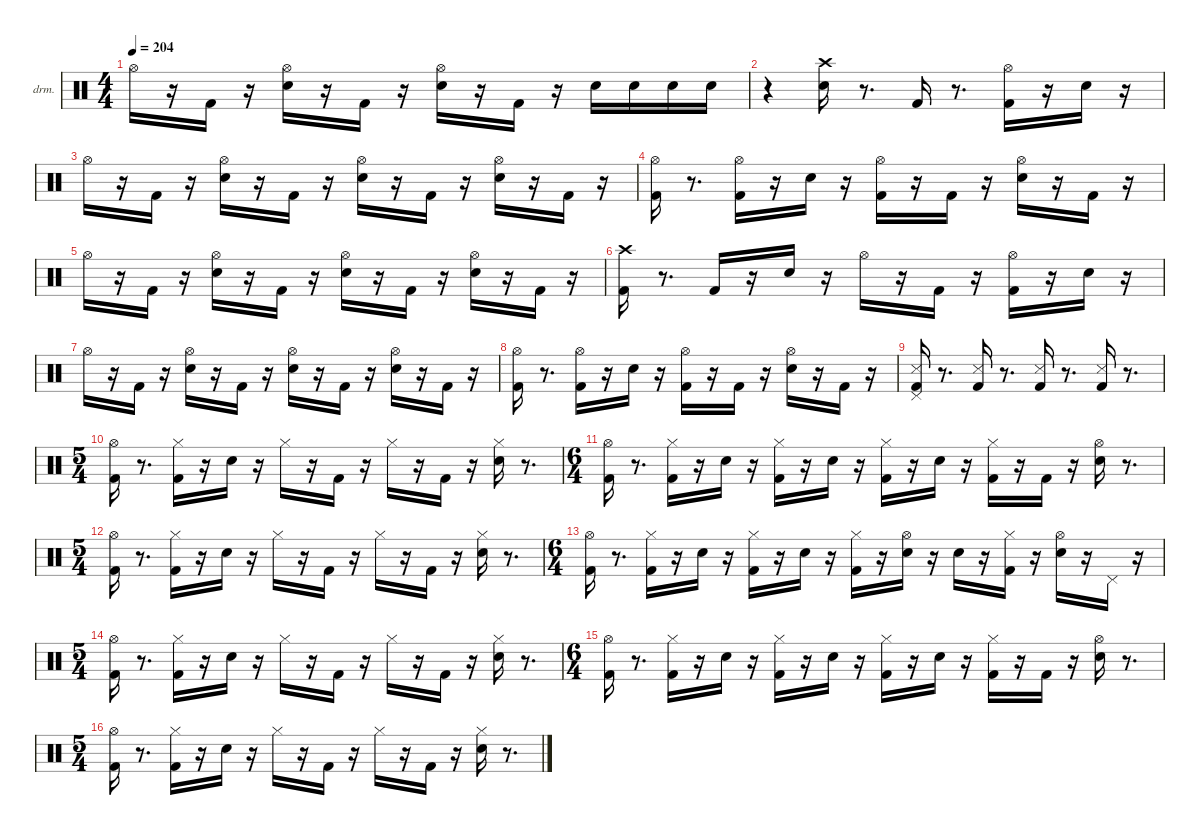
\hideDynamics
\bracketExtendMode nobrackets
\firstSystemTrackNameOrientation horizontal
\otherSystemsTrackNameOrientation horizontal
\track ("drums" "drm.") {instrument percussion}
\staff {score}
\articulation defaults
\ts (4 4)
\tempo 204
\clef neutral
\ks aminor "Hi-Hat (open)"{acc #}.16{dy fff beam Down}
r.16{beam Down} "Kick (hit) 2".16{dy ff beam Up} r.16{beam Up} ("Snare (hit) 2" "Hi-Hat (open)"{acc #}).16{beam Down} r.16{beam Down} "Kick (hit) 2".16{beam Up} r.16{beam Up} ("Snare (hit) 2" "Hi-Hat (open)"{acc #}).16{beam Down} r.16{beam Down} "Kick (hit) 2".16{beam Up} r.16{beam Up} "Snare (hit) 2".16{beam Down} "Snare (hit) 2".16{dy mf beam Down} "Snare (hit) 2".16{dy f beam Down} "Snare (hit) 2".16{dy ff beam Down} |
r.4{beam Down} ("Snare (hit) 2" "Crash high (hit)"{acc #}).16{beam Down} r.8{d beam Down} "Kick (hit) 2".16{beam Up} r.8{d beam Up} ("Kick (hit) 2" "Hi-Hat (open)"{acc #}).16{dy fff beam Down} r.16{beam Down} "Snare (hit) 2".16{dy ff beam Down} r.16{beam Down} |
"Hi-Hat (open)"{acc #}.16{dy fff beam Down} r.16{beam Down} "Kick (hit) 2".16{dy ff beam Up} r.16{beam Up} ("Snare (hit) 2" "Hi-Hat (open)"{acc #}).16{beam Down} r.16{beam Down} "Kick (hit) 2".16{beam Up} r.16{beam Up} ("Snare (hit) 2" "Hi-Hat (open)"{acc #}).16{beam Down} r.16{beam Down} "Kick (hit) 2".16{beam Up} r.16{beam Up} ("Snare (hit) 2" "Hi-Hat (open)"{acc #}).16{beam Down} r.16{beam Down} "Kick (hit) 2".16{dy mf beam Up} r.16{beam Up} |
("Kick (hit) 2" "Hi-Hat (open)"{acc #}).16{dy fff beam Down} r.8{d beam Down} ("Kick (hit) 2" "Hi-Hat (open)"{acc #}).16{dy ff beam Down} r.16{beam Down} "Snare (hit) 2".16{beam Down} r.16{beam Down} ("Kick (hit) 2" "Hi-Hat (open)"{acc #}).16{dy mf beam Down} r.16{beam Down} "Kick (hit) 2".16{dy ff beam Up} r.16{beam Up} ("Snare (hit) 2" "Hi-Hat (open)"{acc #}).16{dy mf beam Down} r.16{beam Down} "Kick (hit) 2".16{dy ff beam Up} r.16{beam Up} |
"Hi-Hat (open)"{acc #}.16{dy fff beam Down} r.16{beam Down} "Kick (hit) 2".16{dy ff beam Up} r.16{beam Up} ("Snare (hit) 2" "Hi-Hat (open)"{acc #}).16{beam Down} r.16{beam Down} "Kick (hit) 2".16{beam Up} r.16{beam Up} ("Snare (hit) 2" "Hi-Hat (open)"{acc #}).16{beam Down} r.16{beam Down} "Kick (hit) 2".16{beam Up} r.16{beam Up} ("Snare (hit) 2" "Hi-Hat (open)"{acc #}).16{beam Down} r.16{beam Down} "Kick (hit) 2".16{dy mf beam Up} r.16{beam Up} |
("Kick (hit) 2" "Crash high (hit)"{acc #}).16{dy fff beam Down} r.8{d beam Down} "Kick (hit) 2".16{dy ff beam Up} r.16{beam Up} "Snare (hit) 2".16{beam Down} r.16{beam Down} "Hi-Hat (open)"{acc #}.16{dy f beam Down} r.16{beam Down} "Kick (hit) 2".16{beam Up} r.16{beam Up} ("Kick (hit) 2" "Hi-Hat (open)"{acc #}).16{dy ff beam Down} r.16{beam Down} "Snare (hit) 2".16{beam Down} r.16{beam Down} |
"Hi-Hat (open)"{acc #}.16{dy fff beam Down} r.16{beam Down} "Kick (hit) 2".16{dy ff beam Up} r.16{beam Up} ("Snare (hit) 2" "Hi-Hat (open)"{acc #}).16{beam Down} r.16{beam Down} "Kick (hit) 2".16{beam Up} r.16{beam Up} ("Snare (hit) 2" "Hi-Hat (open)"{acc #}).16{beam Down} r.16{beam Down} "Kick (hit) 2".16{beam Up} r.16{beam Up} ("Snare (hit) 2" "Hi-Hat (open)"{acc #}).16{beam Down} r.16{beam Down} "Kick (hit) 2".16{dy mf beam Up} r.16{beam Up} |
("Kick (hit) 2" "Hi-Hat (open)"{acc #}).16{dy fff beam Down} r.8{d beam Down} ("Kick (hit) 2" "Hi-Hat (open)"{acc #}).16{dy ff beam Down} r.16{beam Down} "Snare (hit) 2".16{beam Down} r.16{beam Down} ("Kick (hit) 2" "Hi-Hat (open)"{acc #}).16{dy f beam Down} r.16{beam Down} "Kick (hit) 2".16{dy ff beam Up} r.16{beam Up} ("Snare (hit) 2" "Hi-Hat (open)"{acc #}).16{dy mf beam Down} r.16{beam Down} "Kick (hit) 2".16{dy ff beam Up} r.16{beam Up} |
("Kick (hit) 2" "Snare (side stick) 3"{acc #} "Pedal Hi-Hat (hit)"{acc #}).16{dy f beam Up} r.8{d beam Up} ("Kick (hit) 2" "Snare (side stick) 3"{acc #}).16{dy mf beam Up} r.8{d beam Up} ("Kick (hit) 2" "Snare (side stick) 3"{acc #}).16{dy f beam Up} r.8{d beam Up} ("Kick (hit) 2" "Snare (side stick) 3"{acc #}).16{dy mf beam Up} r.8{d beam Up} |
\ts (5 4)
("Kick (hit) 2" "Hi-Hat (open)"{acc #}).16{dy fff beam Down} r.8{d beam Down} ("Kick (hit) 2" "Hi-Hat (closed)"{acc #}).16{dy ff beam Down} r.16{beam Down} "Snare (hit) 2".16{dy f beam Down} r.16{beam Down} "Hi-Hat (closed)"{acc #}.16{dy ff beam Down} r.16{beam Down} "Kick (hit) 2".16{beam Up} r.16{beam Up} "Hi-Hat (closed)"{acc #}.16{dy f beam Down} r.16{beam Down} "Kick (hit) 2".16{dy ff beam Up} r.16{beam Up} ("Snare (hit) 2" "Hi-Hat (closed)"{acc #}).16{dy f beam Down} r.8{d beam Down} |
\ts (6 4)
("Kick (hit) 2" "Hi-Hat (open)"{acc #}).16{dy ff beam Down} r.8{d beam Down} ("Kick (hit) 2" "Hi-Hat (closed)"{acc #}).16{beam Down} r.16{beam Down} "Snare (hit) 2".16{dy f beam Down} r.16{beam Down} ("Kick (hit) 2" "Hi-Hat (closed)"{acc #}).16{dy ff beam Down} r.16{beam Down} "Snare (hit) 2".16{beam Down} r.16{beam Down} ("Kick (hit) 2" "Hi-Hat (closed)"{acc #}).16{beam Down} r.16{beam Down} "Snare (hit) 2".16{dy mf beam Down} r.16{beam Down} ("Kick (hit) 2" "Hi-Hat (closed)"{acc #}).16{dy f beam Down} r.16{beam Down} "Kick (hit) 2".16{dy ff beam Up} r.16{beam Up} ("Snare (hit) 2" "Hi-Hat (open)"{acc #}).16{beam Down} r.8{d beam Down} |
\ts (5 4)
("Kick (hit) 2" "Hi-Hat (open)"{acc #}).16{beam Down} r.8{d beam Down} ("Kick (hit) 2" "Hi-Hat (closed)"{acc #}).16{beam Down} r.16{beam Down} "Snare (hit) 2".16{dy f beam Down} r.16{beam Down} "Hi-Hat (closed)"{acc #}.16{dy ff beam Down} r.16{beam Down} "Kick (hit) 2".16{beam Up} r.16{beam Up} "Hi-Hat (closed)"{acc #}.16{beam Down} r.16{beam Down} "Kick (hit) 2".16{beam Up} r.16{beam Up} ("Snare (hit) 2" "Hi-Hat (closed)"{acc #}).16{beam Down} r.8{d beam Down} |
\ts (6 4)
("Kick (hit) 2" "Hi-Hat (open)"{acc #}).16{beam Down} r.8{d beam Down} ("Kick (hit) 2" "Hi-Hat (closed)"{acc #}).16{beam Down} r.16{beam Down} "Snare (hit) 2".16{dy f beam Down} r.16{beam Down} ("Kick (hit) 2" "Hi-Hat (closed)"{acc #}).16{dy ff beam Down} r.16{beam Down} "Snare (hit) 2".16{beam Down} r.16{beam Down} ("Kick (hit) 2" "Hi-Hat (closed)"{acc #}).16{dy f beam Down} r.16{beam Down} ("Snare (hit) 2" "Hi-Hat (open)"{acc #}).16{dy ff beam Down} r.16{beam Down} "Snare (hit) 2".16{dy mf beam Down} r.16{beam Down} ("Kick (hit) 2" "Hi-Hat (closed)"{acc #}).16{dy ff beam Down} r.16{beam Down} ("Snare (hit) 2" "Hi-Hat (open)"{acc #}).16{beam Down} r.16{beam Down} "Pedal Hi-Hat (hit)"{acc #}.16{dy f beam Up} r.16{beam Up} |
\ts (5 4)
("Kick (hit) 2" "Hi-Hat (open)"{acc #}).16{dy ff beam Down} r.8{d beam Down} ("Kick (hit) 2" "Hi-Hat (closed)"{acc #}).16{beam Down} r.16{beam Down} "Snare (hit) 2".16{dy f beam Down} r.16{beam Down} "Hi-Hat (closed)"{acc #}.16{dy ff beam Down} r.16{beam Down} "Kick (hit) 2".16{beam Up} r.16{beam Up} "Hi-Hat (closed)"{acc #}.16{dy f beam Down} r.16{beam Down} "Kick (hit) 2".16{dy ff beam Up} r.16{beam Up} ("Snare (hit) 2" "Hi-Hat (closed)"{acc #}).16{dy f beam Down} r.8{d beam Down} |
\ts (6 4)
("Kick (hit) 2" "Hi-Hat (open)"{acc #}).16{dy ff beam Down} r.8{d beam Down} ("Kick (hit) 2" "Hi-Hat (closed)"{acc #}).16{beam Down} r.16{beam Down} "Snare (hit) 2".16{dy f beam Down} r.16{beam Down} ("Kick (hit) 2" "Hi-Hat (closed)"{acc #}).16{dy ff beam Down} r.16{beam Down} "Snare (hit) 2".16{beam Down} r.16{beam Down} ("Kick (hit) 2" "Hi-Hat (closed)"{acc #}).16{beam Down} r.16{beam Down} "Snare (hit) 2".16{dy mf beam Down} r.16{beam Down} ("Kick (hit) 2" "Hi-Hat (closed)"{acc #}).16{dy f beam Down} r.16{beam Down} "Kick (hit) 2".16{dy ff beam Up} r.16{beam Up} ("Snare (hit) 2" "Hi-Hat (open)"{acc #}).16{beam Down} r.8{d beam Down} |
\ts (5 4)
("Kick (hit) 2" "Hi-Hat (open)"{acc #}).16{beam Down} r.8{d beam Down} ("Kick (hit) 2" "Hi-Hat (closed)"{acc #}).16{beam Down} r.16{beam Down} "Snare (hit) 2".16{dy f beam Down} r.16{beam Down} "Hi-Hat (closed)"{acc #}.16{dy ff beam Down} r.16{beam Down} "Kick (hit) 2".16{beam Up} r.16{beam Up} "Hi-Hat (closed)"{acc #}.16{dy f beam Down} r.16{beam Down} "Kick (hit) 2".16{dy ff beam Up} r.16{beam Up} ("Snare (hit) 2" "Hi-Hat (closed)"{acc #}).16{beam Down} r.8{d beam Down}
